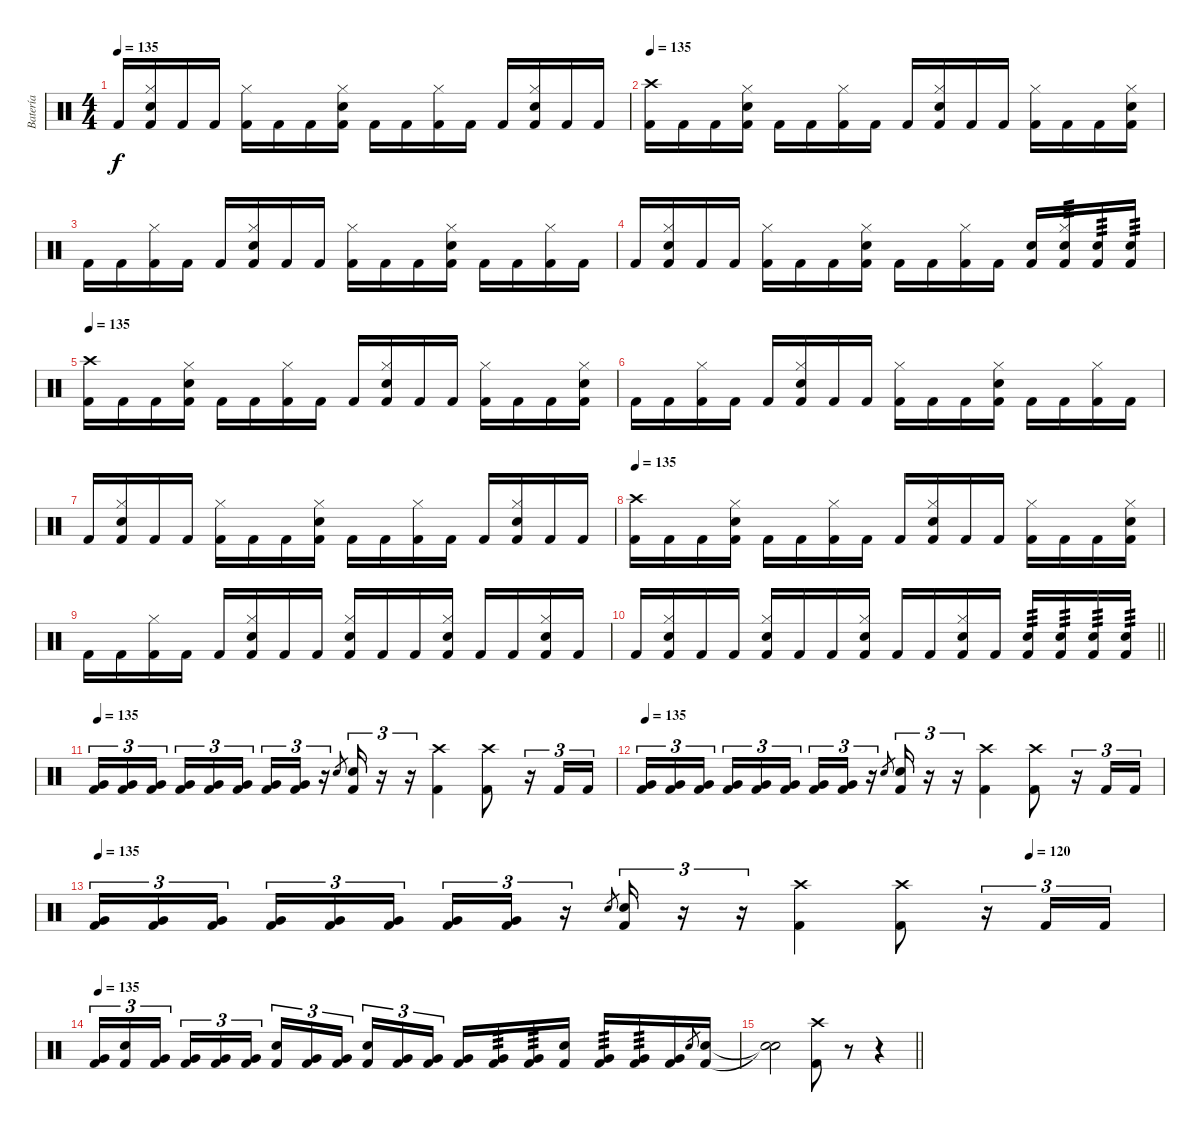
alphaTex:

\track ("Batería" "Batería") {instrument percussion}
\staff {score}
\articulation defaults
\ts (4 4)
\tempo 135
\clef neutral
\ks c "Kick (hit) 2".16{dy f}
("Hi-Hat (closed)" "Snare (hit) 2" "Kick (hit) 2").16 "Kick (hit) 2".16 "Kick (hit) 2".16 ("Hi-Hat (closed)" "Kick (hit) 2").16 "Kick (hit) 2".16 "Kick (hit) 2".16 ("Hi-Hat (closed)" "Snare (hit) 2" "Kick (hit) 2").16 "Kick (hit) 2".16 "Kick (hit) 2".16 ("Hi-Hat (closed)" "Kick (hit) 2").16 "Kick (hit) 2".16 "Kick (hit) 2".16 ("Hi-Hat (closed)" "Snare (hit) 2" "Kick (hit) 2").16 "Kick (hit) 2".16 "Kick (hit) 2".16 |
\tempo 135
("Crash high (hit)" "Kick (hit) 2").16 "Kick (hit) 2".16 "Kick (hit) 2".16 ("Hi-Hat (closed)" "Snare (hit) 2" "Kick (hit) 2").16 "Kick (hit) 2".16 "Kick (hit) 2".16 ("Hi-Hat (closed)" "Kick (hit) 2").16 "Kick (hit) 2".16 "Kick (hit) 2".16 ("Hi-Hat (closed)" "Snare (hit) 2" "Kick (hit) 2").16 "Kick (hit) 2".16 "Kick (hit) 2".16 ("Hi-Hat (closed)" "Kick (hit) 2").16 "Kick (hit) 2".16 "Kick (hit) 2".16 ("Hi-Hat (closed)" "Snare (hit) 2" "Kick (hit) 2").16 |
"Kick (hit) 2".16 "Kick (hit) 2".16 ("Hi-Hat (closed)" "Kick (hit) 2").16 "Kick (hit) 2".16 "Kick (hit) 2".16 ("Hi-Hat (closed)" "Snare (hit) 2" "Kick (hit) 2").16 "Kick (hit) 2".16 "Kick (hit) 2".16 ("Hi-Hat (closed)" "Kick (hit) 2").16 "Kick (hit) 2".16 "Kick (hit) 2".16 ("Hi-Hat (closed)" "Snare (hit) 2" "Kick (hit) 2").16 "Kick (hit) 2".16 "Kick (hit) 2".16 ("Hi-Hat (closed)" "Kick (hit) 2").16 "Kick (hit) 2".16 |
"Kick (hit) 2".16 ("Hi-Hat (closed)" "Snare (hit) 2" "Kick (hit) 2").16 "Kick (hit) 2".16 "Kick (hit) 2".16 ("Hi-Hat (closed)" "Kick (hit) 2").16 "Kick (hit) 2".16 "Kick (hit) 2".16 ("Hi-Hat (closed)" "Snare (hit) 2" "Kick (hit) 2").16 "Kick (hit) 2".16 "Kick (hit) 2".16 ("Hi-Hat (closed)" "Kick (hit) 2").16 "Kick (hit) 2".16 ("Snare (hit) 2" "Kick (hit) 2").16 ("Hi-Hat (closed)" "Snare (hit) 2" "Kick (hit) 2").16{tp 3} ("Snare (hit) 2" "Kick (hit) 2").16{tp 3} ("Snare (hit) 2" "Kick (hit) 2").16{tp 3} |
\tempo 135
("Crash high (hit)" "Kick (hit) 2").16 "Kick (hit) 2".16 "Kick (hit) 2".16 ("Hi-Hat (closed)" "Snare (hit) 2" "Kick (hit) 2").16 "Kick (hit) 2".16 "Kick (hit) 2".16 ("Hi-Hat (closed)" "Kick (hit) 2").16 "Kick (hit) 2".16 "Kick (hit) 2".16 ("Hi-Hat (closed)" "Snare (hit) 2" "Kick (hit) 2").16 "Kick (hit) 2".16 "Kick (hit) 2".16 ("Hi-Hat (closed)" "Kick (hit) 2").16 "Kick (hit) 2".16 "Kick (hit) 2".16 ("Hi-Hat (closed)" "Snare (hit) 2" "Kick (hit) 2").16 |
"Kick (hit) 2".16 "Kick (hit) 2".16 ("Hi-Hat (closed)" "Kick (hit) 2").16 "Kick (hit) 2".16 "Kick (hit) 2".16 ("Hi-Hat (closed)" "Snare (hit) 2" "Kick (hit) 2").16 "Kick (hit) 2".16 "Kick (hit) 2".16 ("Hi-Hat (closed)" "Kick (hit) 2").16 "Kick (hit) 2".16 "Kick (hit) 2".16 ("Hi-Hat (closed)" "Snare (hit) 2" "Kick (hit) 2").16 "Kick (hit) 2".16 "Kick (hit) 2".16 ("Hi-Hat (closed)" "Kick (hit) 2").16 "Kick (hit) 2".16 |
"Kick (hit) 2".16 ("Hi-Hat (closed)" "Snare (hit) 2" "Kick (hit) 2").16 "Kick (hit) 2".16 "Kick (hit) 2".16 ("Hi-Hat (closed)" "Kick (hit) 2").16 "Kick (hit) 2".16 "Kick (hit) 2".16 ("Hi-Hat (closed)" "Snare (hit) 2" "Kick (hit) 2").16 "Kick (hit) 2".16 "Kick (hit) 2".16 ("Hi-Hat (closed)" "Kick (hit) 2").16 "Kick (hit) 2".16 "Kick (hit) 2".16 ("Hi-Hat (closed)" "Snare (hit) 2" "Kick (hit) 2").16 "Kick (hit) 2".16 "Kick (hit) 2".16 |
\tempo 135
("Crash high (hit)" "Kick (hit) 2").16 "Kick (hit) 2".16 "Kick (hit) 2".16 ("Hi-Hat (closed)" "Snare (hit) 2" "Kick (hit) 2").16 "Kick (hit) 2".16 "Kick (hit) 2".16 ("Hi-Hat (closed)" "Kick (hit) 2").16 "Kick (hit) 2".16 "Kick (hit) 2".16 ("Hi-Hat (closed)" "Snare (hit) 2" "Kick (hit) 2").16 "Kick (hit) 2".16 "Kick (hit) 2".16 ("Hi-Hat (closed)" "Kick (hit) 2").16 "Kick (hit) 2".16 "Kick (hit) 2".16 ("Hi-Hat (closed)" "Snare (hit) 2" "Kick (hit) 2").16 |
"Kick (hit) 2".16 "Kick (hit) 2".16 ("Hi-Hat (closed)" "Kick (hit) 2").16 "Kick (hit) 2".16 "Kick (hit) 2".16 ("Hi-Hat (closed)" "Snare (hit) 2" "Kick (hit) 2").16 "Kick (hit) 2".16 "Kick (hit) 2".16 ("Hi-Hat (closed)" "Snare (hit) 2" "Kick (hit) 2").16 "Kick (hit) 2".16 "Kick (hit) 2".16 ("Hi-Hat (closed)" "Snare (hit) 2" "Kick (hit) 2").16 "Kick (hit) 2".16 "Kick (hit) 2".16 ("Hi-Hat (closed)" "Snare (hit) 2" "Kick (hit) 2").16 "Kick (hit) 2".16 |
\barLineRight lightlight "Kick (hit) 2".16
("Hi-Hat (closed)" "Snare (hit) 2" "Kick (hit) 2").16 "Kick (hit) 2".16 "Kick (hit) 2".16 ("Hi-Hat (closed)" "Snare (hit) 2" "Kick (hit) 2").16 "Kick (hit) 2".16 "Kick (hit) 2".16 ("Hi-Hat (closed)" "Snare (hit) 2" "Kick (hit) 2").16 "Kick (hit) 2".16 "Kick (hit) 2".16 ("Hi-Hat (closed)" "Snare (hit) 2" "Kick (hit) 2").16 "Kick (hit) 2".16 ("Snare (hit) 2" "Kick (hit) 2").16{tp 3} ("Snare (hit) 2" "Kick (hit) 2").16{tp 3} ("Snare (hit) 2" "Kick (hit) 2").16{tp 3} ("Snare (hit) 2" "Kick (hit) 2").16{tp 3} |
\tempo 135
("Very Low Tom (hit)" "Kick (hit) 2").16{tu (3 2)} ("Very Low Tom (hit)" "Kick (hit) 2").16{tu (3 2)} ("Very Low Tom (hit)" "Kick (hit) 2").16{tu (3 2)} ("Very Low Tom (hit)" "Kick (hit) 2").16{tu (3 2)} ("Very Low Tom (hit)" "Kick (hit) 2").16{tu (3 2)} ("Very Low Tom (hit)" "Kick (hit) 2").16{tu (3 2)} ("Very Low Tom (hit)" "Kick (hit) 2").16{tu (3 2)} ("Very Low Tom (hit)" "Kick (hit) 2").16{tu (3 2)} r.16{tu (3 2)} "Snare (hit) 2".8{gr} ("Snare (hit) 2" "Kick (hit) 2").16{tu (3 2)} r.16{tu (3 2)} r.16{tu (3 2)} ("Crash high (hit)" "Kick (hit) 2").4 ("Crash high (hit)" "Kick (hit) 2").8 r.16{tu (3 2)} "Kick (hit) 2".16{tu (3 2)} "Kick (hit) 2".16{tu (3 2)} |
\tempo 135
("Very Low Tom (hit)" "Kick (hit) 2").16{tu (3 2)} ("Very Low Tom (hit)" "Kick (hit) 2").16{tu (3 2)} ("Very Low Tom (hit)" "Kick (hit) 2").16{tu (3 2)} ("Very Low Tom (hit)" "Kick (hit) 2").16{tu (3 2)} ("Very Low Tom (hit)" "Kick (hit) 2").16{tu (3 2)} ("Very Low Tom (hit)" "Kick (hit) 2").16{tu (3 2)} ("Very Low Tom (hit)" "Kick (hit) 2").16{tu (3 2)} ("Very Low Tom (hit)" "Kick (hit) 2").16{tu (3 2)} r.16{tu (3 2)} "Snare (hit) 2".8{gr} ("Snare (hit) 2" "Kick (hit) 2").16{tu (3 2)} r.16{tu (3 2)} r.16{tu (3 2)} ("Crash high (hit)" "Kick (hit) 2").4 ("Crash high (hit)" "Kick (hit) 2").8 r.16{tu (3 2)} "Kick (hit) 2".16{tu (3 2)} "Kick (hit) 2".16{tu (3 2)} |
\tempo (120 0.875)
\tempo 135
("Very Low Tom (hit)" "Kick (hit) 2").16{tu (3 2)} ("Very Low Tom (hit)" "Kick (hit) 2").16{tu (3 2)} ("Very Low Tom (hit)" "Kick (hit) 2").16{tu (3 2)} ("Very Low Tom (hit)" "Kick (hit) 2").16{tu (3 2)} ("Very Low Tom (hit)" "Kick (hit) 2").16{tu (3 2)} ("Very Low Tom (hit)" "Kick (hit) 2").16{tu (3 2)} ("Very Low Tom (hit)" "Kick (hit) 2").16{tu (3 2)} ("Very Low Tom (hit)" "Kick (hit) 2").16{tu (3 2)} r.16{tu (3 2)} "Snare (hit) 2".8{gr} ("Snare (hit) 2" "Kick (hit) 2").16{tu (3 2)} r.16{tu (3 2)} r.16{tu (3 2)} ("Crash high (hit)" "Kick (hit) 2").4 ("Crash high (hit)" "Kick (hit) 2").8 r.16{tu (3 2)} "Kick (hit) 2".16{tu (3 2)} "Kick (hit) 2".16{tu (3 2)} |
\tempo 135
("Very Low Tom (hit)" "Kick (hit) 2").16{tu (3 2)} ("Snare (hit) 2" "Kick (hit) 2").16{tu (3 2)} ("Very Low Tom (hit)" "Kick (hit) 2").16{tu (3 2)} ("Very Low Tom (hit)" "Kick (hit) 2").16{tu (3 2)} ("Very Low Tom (hit)" "Kick (hit) 2").16{tu (3 2)} ("Very Low Tom (hit)" "Kick (hit) 2").16{tu (3 2)} ("Snare (hit) 2" "Kick (hit) 2").16{tu (3 2)} ("Very Low Tom (hit)" "Kick (hit) 2").16{tu (3 2)} ("Very Low Tom (hit)" "Kick (hit) 2").16{tu (3 2)} ("Snare (hit) 2" "Kick (hit) 2").16{tu (3 2)} ("Very Low Tom (hit)" "Kick (hit) 2").16{tu (3 2)} ("Very Low Tom (hit)" "Kick (hit) 2").16{tu (3 2)} ("Very Low Tom (hit)" "Kick (hit) 2").16 ("Very Low Tom (hit)" "Kick (hit) 2").16{tp 3} ("Very Low Tom (hit)" "Kick (hit) 2").16{tp 3} ("Snare (hit) 2" "Kick (hit) 2").16 ("Very Low Tom (hit)" "Kick (hit) 2").16{tp 3} ("Very Low Tom (hit)" "Kick (hit) 2").16{tp 3} ("Very Low Tom (hit)" "Kick (hit) 2").16 "Snare (hit) 2".8{gr} ("Snare (hit) 2" "Kick (hit) 2").16 |
\barLineRight lightlight
("Snare (hit)"{t} "Snare (hit)"{t}).2 ("Crash high (hit)" "Kick (hit) 2").8 r.8 r.4
